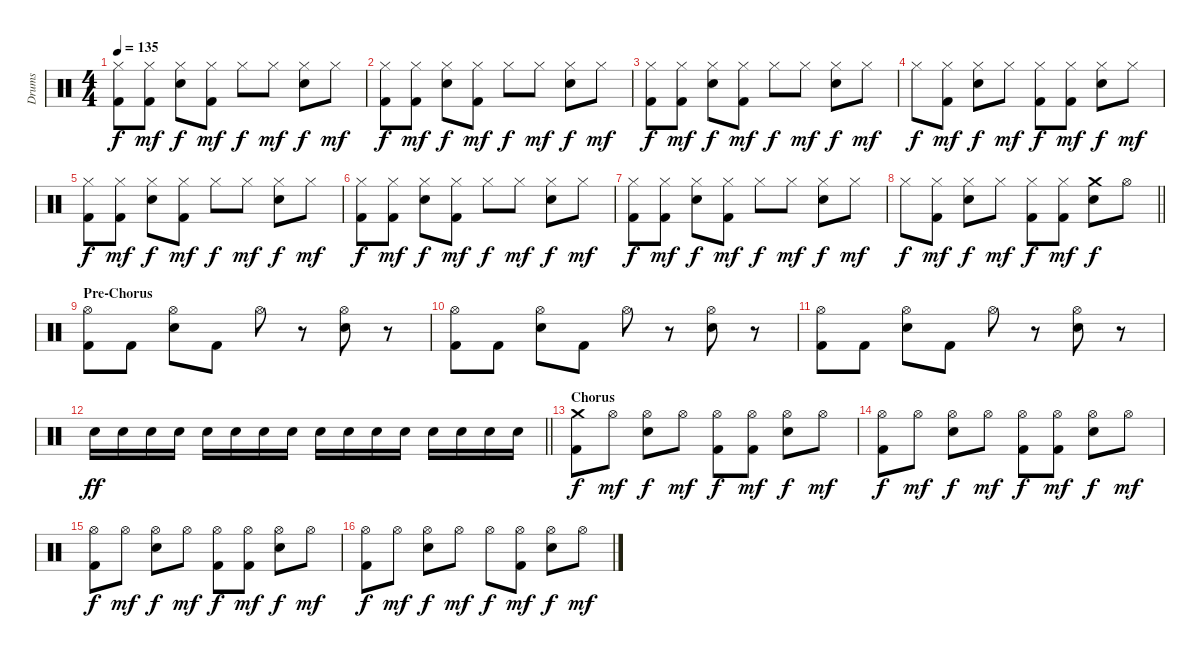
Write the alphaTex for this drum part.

\track ("Drums" "Drums") {instrument percussion}
\staff {score}
\articulation defaults
\ts (4 4)
\tempo 135
\clef neutral
\ks c
("Hi-Hat (closed)" "Kick (hit) 2").8{dy f} ("Hi-Hat (closed)" "Kick (hit) 2").8{dy mf} ("Hi-Hat (closed)" "Electric Snare (hit)").8{dy f} ("Hi-Hat (closed)" "Kick (hit) 2").8{dy mf} "Hi-Hat (closed)".8{dy f} "Hi-Hat (closed)".8{dy mf} ("Hi-Hat (closed)" "Electric Snare (hit)").8{dy f} "Hi-Hat (closed)".8{dy mf} |
("Hi-Hat (closed)" "Kick (hit) 2").8{dy f} ("Hi-Hat (closed)" "Kick (hit) 2").8{dy mf} ("Hi-Hat (closed)" "Electric Snare (hit)").8{dy f} ("Hi-Hat (closed)" "Kick (hit) 2").8{dy mf} "Hi-Hat (closed)".8{dy f} "Hi-Hat (closed)".8{dy mf} ("Hi-Hat (closed)" "Electric Snare (hit)").8{dy f} "Hi-Hat (closed)".8{dy mf} |
("Hi-Hat (closed)" "Kick (hit) 2").8{dy f} ("Hi-Hat (closed)" "Kick (hit) 2").8{dy mf} ("Hi-Hat (closed)" "Electric Snare (hit)").8{dy f} ("Hi-Hat (closed)" "Kick (hit) 2").8{dy mf} "Hi-Hat (closed)".8{dy f} "Hi-Hat (closed)".8{dy mf} ("Hi-Hat (closed)" "Electric Snare (hit)").8{dy f} "Hi-Hat (closed)".8{dy mf} |
"Hi-Hat (closed)".8{dy f} ("Hi-Hat (closed)" "Kick (hit) 2").8{dy mf} ("Hi-Hat (closed)" "Electric Snare (hit)").8{dy f} "Hi-Hat (closed)".8{dy mf} ("Hi-Hat (closed)" "Kick (hit) 2").8{dy f} ("Hi-Hat (closed)" "Kick (hit) 2").8{dy mf} ("Hi-Hat (closed)" "Electric Snare (hit)").8{dy f} "Hi-Hat (closed)".8{dy mf} |
("Hi-Hat (closed)" "Kick (hit) 2").8{dy f} ("Hi-Hat (closed)" "Kick (hit) 2").8{dy mf} ("Hi-Hat (closed)" "Electric Snare (hit)").8{dy f} ("Hi-Hat (closed)" "Kick (hit) 2").8{dy mf} "Hi-Hat (closed)".8{dy f} "Hi-Hat (closed)".8{dy mf} ("Hi-Hat (closed)" "Electric Snare (hit)").8{dy f} "Hi-Hat (closed)".8{dy mf} |
("Hi-Hat (closed)" "Kick (hit) 2").8{dy f} ("Hi-Hat (closed)" "Kick (hit) 2").8{dy mf} ("Hi-Hat (closed)" "Electric Snare (hit)").8{dy f} ("Hi-Hat (closed)" "Kick (hit) 2").8{dy mf} "Hi-Hat (closed)".8{dy f} "Hi-Hat (closed)".8{dy mf} ("Hi-Hat (closed)" "Electric Snare (hit)").8{dy f} "Hi-Hat (closed)".8{dy mf} |
("Hi-Hat (closed)" "Kick (hit) 2").8{dy f} ("Hi-Hat (closed)" "Kick (hit) 2").8{dy mf} ("Hi-Hat (closed)" "Electric Snare (hit)").8{dy f} ("Hi-Hat (closed)" "Kick (hit) 2").8{dy mf} "Hi-Hat (closed)".8{dy f} "Hi-Hat (closed)".8{dy mf} ("Hi-Hat (closed)" "Electric Snare (hit)").8{dy f} "Hi-Hat (closed)".8{dy mf} |
\barLineRight lightlight "Hi-Hat (closed)".8{dy f}
("Hi-Hat (closed)" "Kick (hit) 2").8{dy mf} ("Hi-Hat (closed)" "Electric Snare (hit)").8{dy f} "Hi-Hat (closed)".8{dy mf} ("Hi-Hat (closed)" "Kick (hit) 2").8{dy f} ("Hi-Hat (closed)" "Kick (hit) 2").8{dy mf} ("Crash medium (hit)" "Electric Snare (hit)").8{dy f} "Hi-Hat (open)".8 |
\section ("" "Pre-Chorus")
("Hi-Hat (open)" "Kick (hit) 2").8 "Kick (hit) 2".8 ("Hi-Hat (open)" "Electric Snare (hit)").8 "Kick (hit) 2".8 "Hi-Hat (open)".8 r.8 ("Hi-Hat (open)" "Electric Snare (hit)").8 r.8 |
("Hi-Hat (open)" "Kick (hit) 2").8 "Kick (hit) 2".8 ("Hi-Hat (open)" "Electric Snare (hit)").8 "Kick (hit) 2".8 "Hi-Hat (open)".8 r.8 ("Hi-Hat (open)" "Electric Snare (hit)").8 r.8 |
("Hi-Hat (open)" "Kick (hit) 2").8 "Kick (hit) 2".8 ("Hi-Hat (open)" "Electric Snare (hit)").8 "Kick (hit) 2".8 "Hi-Hat (open)".8 r.8 ("Hi-Hat (open)" "Electric Snare (hit)").8 r.8 |
\barLineRight lightlight "Electric Snare (hit)".16{dy ff} "Electric Snare (hit)".16 "Electric Snare (hit)".16 "Electric Snare (hit)".16 "Electric Snare (hit)".16 "Electric Snare (hit)".16 "Electric Snare (hit)".16 "Electric Snare (hit)".16 "Electric Snare (hit)".16 "Electric Snare (hit)".16 "Electric Snare (hit)".16 "Electric Snare (hit)".16 "Electric Snare (hit)".16 "Electric Snare (hit)".16 "Electric Snare (hit)".16 "Electric Snare (hit)".16
|
\section ("" "Chorus")
("Crash medium (hit)" "Kick (hit) 2").8{dy f} "Hi-Hat (open)".8{dy mf} ("Hi-Hat (open)" "Electric Snare (hit)").8{dy f} "Hi-Hat (open)".8{dy mf} ("Hi-Hat (open)" "Kick (hit) 2").8{dy f} ("Hi-Hat (open)" "Kick (hit) 2").8{dy mf} ("Hi-Hat (open)" "Electric Snare (hit)").8{dy f} "Hi-Hat (open)".8{dy mf} |
("Hi-Hat (open)" "Kick (hit) 2").8{dy f} "Hi-Hat (open)".8{dy mf} ("Hi-Hat (open)" "Electric Snare (hit)").8{dy f} "Hi-Hat (open)".8{dy mf} ("Hi-Hat (open)" "Kick (hit) 2").8{dy f} ("Hi-Hat (open)" "Kick (hit) 2").8{dy mf} ("Hi-Hat (open)" "Electric Snare (hit)").8{dy f} "Hi-Hat (open)".8{dy mf} |
("Hi-Hat (open)" "Kick (hit) 2").8{dy f} "Hi-Hat (open)".8{dy mf} ("Hi-Hat (open)" "Electric Snare (hit)").8{dy f} "Hi-Hat (open)".8{dy mf} ("Hi-Hat (open)" "Kick (hit) 2").8{dy f} ("Hi-Hat (open)" "Kick (hit) 2").8{dy mf} ("Hi-Hat (open)" "Electric Snare (hit)").8{dy f} "Hi-Hat (open)".8{dy mf} |
("Hi-Hat (open)" "Kick (hit) 2").8{dy f} "Hi-Hat (open)".8{dy mf} ("Hi-Hat (open)" "Electric Snare (hit)").8{dy f} "Hi-Hat (open)".8{dy mf} "Hi-Hat (open)".8{dy f} ("Hi-Hat (open)" "Kick (hit) 2").8{dy mf} ("Hi-Hat (open)" "Electric Snare (hit)").8{dy f} "Hi-Hat (open)".8{dy mf}
